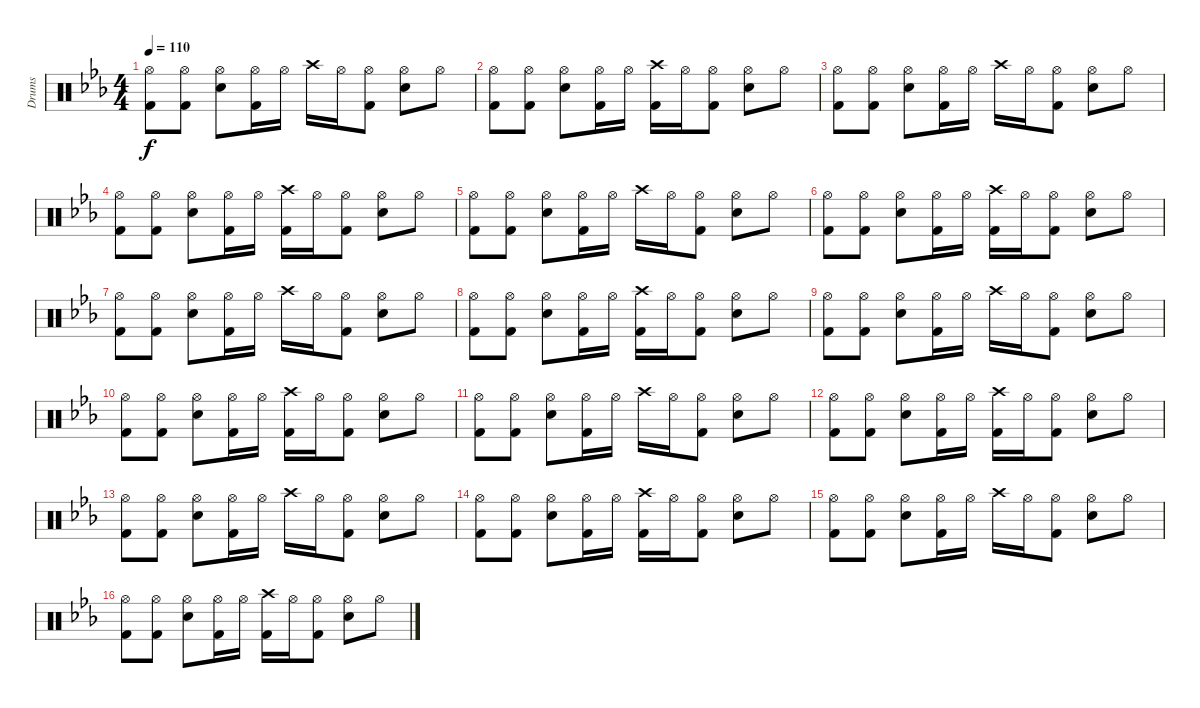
\track ("Drums" "Drums") {instrument percussion}
\staff {score}
\articulation defaults
\ts (4 4)
\tempo 110
\clef neutral
\ks eb
("Hi-Hat (open)" "Kick (hit) 2").8{dy f} ("Hi-Hat (open)" "Kick (hit) 2").8 ("Hi-Hat (open)" "Snare (hit) 2").8 ("Hi-Hat (open)" "Kick (hit) 2").16 "Hi-Hat (open)".16 "Crash high (hit)".16 "Hi-Hat (open)".16 ("Hi-Hat (open)" "Kick (hit) 2").8 ("Hi-Hat (open)" "Snare (hit) 2").8 "Hi-Hat (open)".8 |
("Hi-Hat (open)" "Kick (hit) 2").8 ("Hi-Hat (open)" "Kick (hit) 2").8 ("Hi-Hat (open)" "Snare (hit) 2").8 ("Hi-Hat (open)" "Kick (hit) 2").16 "Hi-Hat (open)".16 ("Crash high (hit)" "Kick (hit) 2").16 "Hi-Hat (open)".16 ("Hi-Hat (open)" "Kick (hit) 2").8 ("Hi-Hat (open)" "Snare (hit) 2").8 "Hi-Hat (open)".8 |
("Hi-Hat (open)" "Kick (hit) 2").8 ("Hi-Hat (open)" "Kick (hit) 2").8 ("Hi-Hat (open)" "Snare (hit) 2").8 ("Hi-Hat (open)" "Kick (hit) 2").16 "Hi-Hat (open)".16 "Crash high (hit)".16 "Hi-Hat (open)".16 ("Hi-Hat (open)" "Kick (hit) 2").8 ("Hi-Hat (open)" "Snare (hit) 2").8 "Hi-Hat (open)".8 |
("Hi-Hat (open)" "Kick (hit) 2").8 ("Hi-Hat (open)" "Kick (hit) 2").8 ("Hi-Hat (open)" "Snare (hit) 2").8 ("Hi-Hat (open)" "Kick (hit) 2").16 "Hi-Hat (open)".16 ("Crash high (hit)" "Kick (hit) 2").16 "Hi-Hat (open)".16 ("Hi-Hat (open)" "Kick (hit) 2").8 ("Hi-Hat (open)" "Snare (hit) 2").8 "Hi-Hat (open)".8 |
("Hi-Hat (open)" "Kick (hit) 2").8 ("Hi-Hat (open)" "Kick (hit) 2").8 ("Hi-Hat (open)" "Snare (hit) 2").8 ("Hi-Hat (open)" "Kick (hit) 2").16 "Hi-Hat (open)".16 "Crash high (hit)".16 "Hi-Hat (open)".16 ("Hi-Hat (open)" "Kick (hit) 2").8 ("Hi-Hat (open)" "Snare (hit) 2").8 "Hi-Hat (open)".8 |
("Hi-Hat (open)" "Kick (hit) 2").8 ("Hi-Hat (open)" "Kick (hit) 2").8 ("Hi-Hat (open)" "Snare (hit) 2").8 ("Hi-Hat (open)" "Kick (hit) 2").16 "Hi-Hat (open)".16 ("Crash high (hit)" "Kick (hit) 2").16 "Hi-Hat (open)".16 ("Hi-Hat (open)" "Kick (hit) 2").8 ("Hi-Hat (open)" "Snare (hit) 2").8 "Hi-Hat (open)".8 |
("Hi-Hat (open)" "Kick (hit) 2").8 ("Hi-Hat (open)" "Kick (hit) 2").8 ("Hi-Hat (open)" "Snare (hit) 2").8 ("Hi-Hat (open)" "Kick (hit) 2").16 "Hi-Hat (open)".16 "Crash high (hit)".16 "Hi-Hat (open)".16 ("Hi-Hat (open)" "Kick (hit) 2").8 ("Hi-Hat (open)" "Snare (hit) 2").8 "Hi-Hat (open)".8 |
("Hi-Hat (open)" "Kick (hit) 2").8 ("Hi-Hat (open)" "Kick (hit) 2").8 ("Hi-Hat (open)" "Snare (hit) 2").8 ("Hi-Hat (open)" "Kick (hit) 2").16 "Hi-Hat (open)".16 ("Crash high (hit)" "Kick (hit) 2").16 "Hi-Hat (open)".16 ("Hi-Hat (open)" "Kick (hit) 2").8 ("Hi-Hat (open)" "Snare (hit) 2").8 "Hi-Hat (open)".8 |
("Hi-Hat (open)" "Kick (hit) 2").8 ("Hi-Hat (open)" "Kick (hit) 2").8 ("Hi-Hat (open)" "Snare (hit) 2").8 ("Hi-Hat (open)" "Kick (hit) 2").16 "Hi-Hat (open)".16 "Crash high (hit)".16 "Hi-Hat (open)".16 ("Hi-Hat (open)" "Kick (hit) 2").8 ("Hi-Hat (open)" "Snare (hit) 2").8 "Hi-Hat (open)".8 |
("Hi-Hat (open)" "Kick (hit) 2").8 ("Hi-Hat (open)" "Kick (hit) 2").8 ("Hi-Hat (open)" "Snare (hit) 2").8 ("Hi-Hat (open)" "Kick (hit) 2").16 "Hi-Hat (open)".16 ("Crash high (hit)" "Kick (hit) 2").16 "Hi-Hat (open)".16 ("Hi-Hat (open)" "Kick (hit) 2").8 ("Hi-Hat (open)" "Snare (hit) 2").8 "Hi-Hat (open)".8 |
("Hi-Hat (open)" "Kick (hit) 2").8 ("Hi-Hat (open)" "Kick (hit) 2").8 ("Hi-Hat (open)" "Snare (hit) 2").8 ("Hi-Hat (open)" "Kick (hit) 2").16 "Hi-Hat (open)".16 "Crash high (hit)".16 "Hi-Hat (open)".16 ("Hi-Hat (open)" "Kick (hit) 2").8 ("Hi-Hat (open)" "Snare (hit) 2").8 "Hi-Hat (open)".8 |
("Hi-Hat (open)" "Kick (hit) 2").8 ("Hi-Hat (open)" "Kick (hit) 2").8 ("Hi-Hat (open)" "Snare (hit) 2").8 ("Hi-Hat (open)" "Kick (hit) 2").16 "Hi-Hat (open)".16 ("Crash high (hit)" "Kick (hit) 2").16 "Hi-Hat (open)".16 ("Hi-Hat (open)" "Kick (hit) 2").8 ("Hi-Hat (open)" "Snare (hit) 2").8 "Hi-Hat (open)".8 |
("Hi-Hat (open)" "Kick (hit) 2").8 ("Hi-Hat (open)" "Kick (hit) 2").8 ("Hi-Hat (open)" "Snare (hit) 2").8 ("Hi-Hat (open)" "Kick (hit) 2").16 "Hi-Hat (open)".16 "Crash high (hit)".16 "Hi-Hat (open)".16 ("Hi-Hat (open)" "Kick (hit) 2").8 ("Hi-Hat (open)" "Snare (hit) 2").8 "Hi-Hat (open)".8 |
("Hi-Hat (open)" "Kick (hit) 2").8 ("Hi-Hat (open)" "Kick (hit) 2").8 ("Hi-Hat (open)" "Snare (hit) 2").8 ("Hi-Hat (open)" "Kick (hit) 2").16 "Hi-Hat (open)".16 ("Crash high (hit)" "Kick (hit) 2").16 "Hi-Hat (open)".16 ("Hi-Hat (open)" "Kick (hit) 2").8 ("Hi-Hat (open)" "Snare (hit) 2").8 "Hi-Hat (open)".8 |
("Hi-Hat (open)" "Kick (hit) 2").8 ("Hi-Hat (open)" "Kick (hit) 2").8 ("Hi-Hat (open)" "Snare (hit) 2").8 ("Hi-Hat (open)" "Kick (hit) 2").16 "Hi-Hat (open)".16 "Crash high (hit)".16 "Hi-Hat (open)".16 ("Hi-Hat (open)" "Kick (hit) 2").8 ("Hi-Hat (open)" "Snare (hit) 2").8 "Hi-Hat (open)".8 |
("Hi-Hat (open)" "Kick (hit) 2").8 ("Hi-Hat (open)" "Kick (hit) 2").8 ("Hi-Hat (open)" "Snare (hit) 2").8 ("Hi-Hat (open)" "Kick (hit) 2").16 "Hi-Hat (open)".16 ("Crash high (hit)" "Kick (hit) 2").16 "Hi-Hat (open)".16 ("Hi-Hat (open)" "Kick (hit) 2").8 ("Hi-Hat (open)" "Snare (hit) 2").8 "Hi-Hat (open)".8
